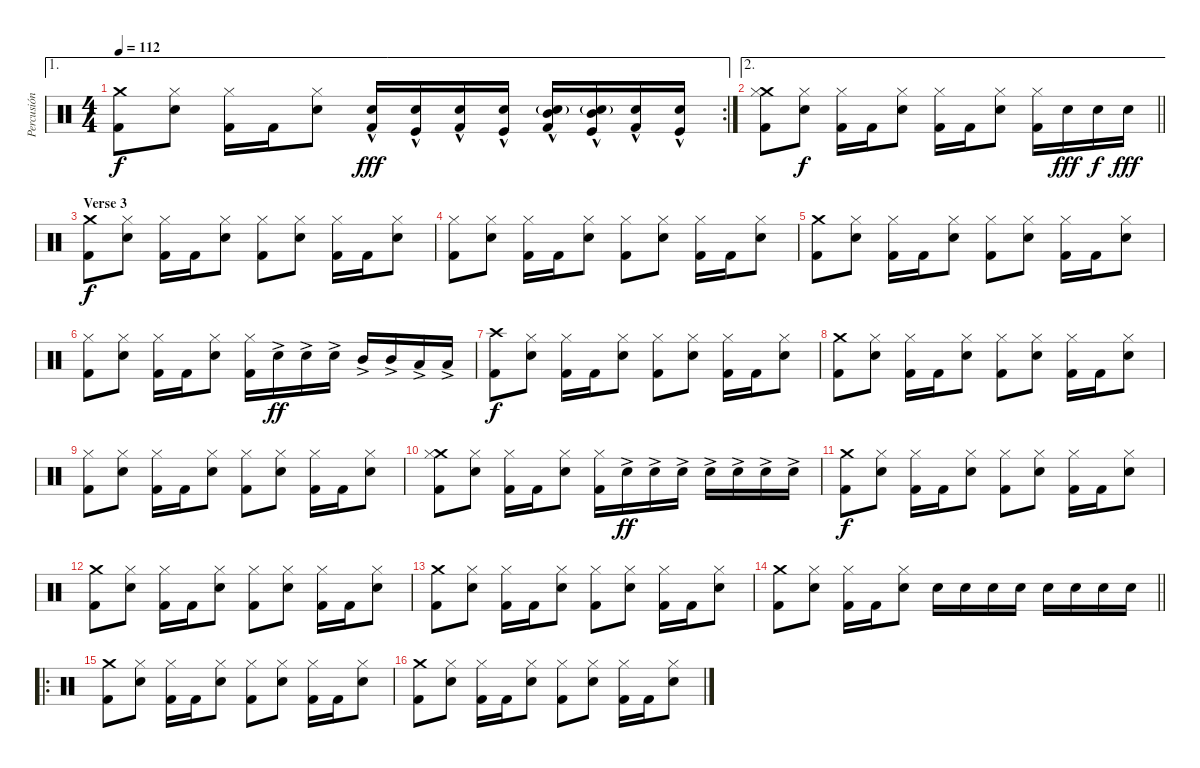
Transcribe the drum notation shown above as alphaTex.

\track ("Percusión" "Percusión") {instrument percussion}
\staff {score}
\articulation defaults
\ae 1
\rc 2
\ts (4 4)
\tempo 112
\clef neutral
\ks c
("Crash medium (hit)" "Kick (hit) 2").8{dy f} ("Hi-Hat (closed)" "Electric Snare (hit)").8 ("Hi-Hat (closed)" "Kick (hit) 2").16 "Kick (hit) 2".16 ("Hi-Hat (closed)" "Electric Snare (hit)").8 ("Electric Snare (hit)" "Kick (hit) 2"{hac}).16{dy fff} ("Electric Snare (hit)" "Kick (hit)"{hac}).16 ("Electric Snare (hit)" "Kick (hit) 2"{hac}).16 ("Electric Snare (hit)" "Kick (hit)"{hac}).16 ("Electric Snare (hit)"{g} "Mid Tom (hit)" "Kick (hit) 2"{hac}).16 ("Electric Snare (hit)"{g} "Mid Tom (hit)" "Kick (hit)"{hac}).16 ("Electric Snare (hit)" "Kick (hit) 2"{hac}).16 ("Electric Snare (hit)" "Kick (hit)"{hac}).16 |
\ae 2
\barLineRight lightlight
("Crash medium (hit)" "Hi-Hat (closed)" "Kick (hit) 2").8 ("Hi-Hat (closed)" "Electric Snare (hit)").8{dy f} ("Hi-Hat (closed)" "Kick (hit) 2").16 "Kick (hit) 2".16 ("Hi-Hat (closed)" "Electric Snare (hit)").8 ("Hi-Hat (closed)" "Kick (hit) 2").16 "Kick (hit) 2".16 ("Hi-Hat (closed)" "Electric Snare (hit)").8 ("Hi-Hat (closed)" "Kick (hit) 2").16 "Electric Snare (hit)".16{dy fff} "Electric Snare (hit)".16{dy f} "Electric Snare (hit)".16{dy fff} |
\section ("" "Verse 3")
("Crash medium (hit)" "Kick (hit) 2").8{dy f} ("Hi-Hat (closed)" "Electric Snare (hit)").8 ("Hi-Hat (closed)" "Kick (hit) 2").16 "Kick (hit) 2".16 ("Hi-Hat (closed)" "Electric Snare (hit)").8 ("Hi-Hat (closed)" "Kick (hit) 2").8 ("Hi-Hat (closed)" "Electric Snare (hit)").8 ("Hi-Hat (closed)" "Kick (hit) 2").16 "Kick (hit) 2".16 ("Hi-Hat (closed)" "Electric Snare (hit)").8 |
("Hi-Hat (closed)" "Kick (hit) 2").8 ("Hi-Hat (closed)" "Electric Snare (hit)").8 ("Hi-Hat (closed)" "Kick (hit) 2").16 "Kick (hit) 2".16 ("Hi-Hat (closed)" "Electric Snare (hit)").8 ("Hi-Hat (closed)" "Kick (hit) 2").8 ("Hi-Hat (closed)" "Electric Snare (hit)").8 ("Hi-Hat (closed)" "Kick (hit) 2").16 "Kick (hit) 2".16 ("Hi-Hat (closed)" "Electric Snare (hit)").8 |
("Crash medium (hit)" "Kick (hit) 2").8 ("Hi-Hat (closed)" "Electric Snare (hit)").8 ("Hi-Hat (closed)" "Kick (hit) 2").16 "Kick (hit) 2".16 ("Hi-Hat (closed)" "Electric Snare (hit)").8 ("Hi-Hat (closed)" "Kick (hit) 2").8 ("Hi-Hat (closed)" "Electric Snare (hit)").8 ("Hi-Hat (closed)" "Kick (hit) 2").16 "Kick (hit) 2".16 ("Hi-Hat (closed)" "Electric Snare (hit)").8 |
("Hi-Hat (closed)" "Kick (hit) 2").8 ("Hi-Hat (closed)" "Electric Snare (hit)").8 ("Hi-Hat (closed)" "Kick (hit) 2").16 "Kick (hit) 2".16 ("Hi-Hat (closed)" "Electric Snare (hit)").8 ("Hi-Hat (closed)" "Kick (hit) 2").16 "Electric Snare (hit)"{ac}.16{dy ff} "Electric Snare (hit)"{ac}.16 "Electric Snare (hit)"{ac}.16 "Mid Tom (hit)"{ac}.16 "Mid Tom (hit)"{ac}.16 "Low Tom (hit)"{ac}.16 "Low Tom (hit)"{ac}.16 |
("Crash high (hit)" "Kick (hit) 2").8{dy f} ("Hi-Hat (closed)" "Electric Snare (hit)").8 ("Hi-Hat (closed)" "Kick (hit) 2").16 "Kick (hit) 2".16 ("Hi-Hat (closed)" "Electric Snare (hit)").8 ("Hi-Hat (closed)" "Kick (hit) 2").8 ("Hi-Hat (closed)" "Electric Snare (hit)").8 ("Hi-Hat (closed)" "Kick (hit) 2").16 "Kick (hit) 2".16 ("Hi-Hat (closed)" "Electric Snare (hit)").8 |
("Crash medium (hit)" "Kick (hit) 2").8 ("Hi-Hat (closed)" "Electric Snare (hit)").8 ("Hi-Hat (closed)" "Kick (hit) 2").16 "Kick (hit) 2".16 ("Hi-Hat (closed)" "Electric Snare (hit)").8 ("Hi-Hat (closed)" "Kick (hit) 2").8 ("Hi-Hat (closed)" "Electric Snare (hit)").8 ("Hi-Hat (closed)" "Kick (hit) 2").16 "Kick (hit) 2".16 ("Hi-Hat (closed)" "Electric Snare (hit)").8 |
("Hi-Hat (closed)" "Kick (hit) 2").8 ("Hi-Hat (closed)" "Electric Snare (hit)").8 ("Hi-Hat (closed)" "Kick (hit) 2").16 "Kick (hit) 2".16 ("Hi-Hat (closed)" "Electric Snare (hit)").8 ("Hi-Hat (closed)" "Kick (hit) 2").8 ("Hi-Hat (closed)" "Electric Snare (hit)").8 ("Hi-Hat (closed)" "Kick (hit) 2").16 "Kick (hit) 2".16 ("Hi-Hat (closed)" "Electric Snare (hit)").8 |
("Crash medium (hit)" "Hi-Hat (closed)" "Kick (hit) 2").8 ("Hi-Hat (closed)" "Electric Snare (hit)").8 ("Hi-Hat (closed)" "Kick (hit) 2").16 "Kick (hit) 2".16 ("Hi-Hat (closed)" "Electric Snare (hit)").8 ("Hi-Hat (closed)" "Kick (hit) 2").16 "Electric Snare (hit)"{ac}.16{dy ff} "Electric Snare (hit)"{ac}.16 "Electric Snare (hit)"{ac}.16 "Electric Snare (hit)"{ac}.16 "Electric Snare (hit)"{ac}.16 "Electric Snare (hit)"{ac}.16 "Electric Snare (hit)"{ac}.16 |
("Crash medium (hit)" "Kick (hit) 2").8{dy f} ("Hi-Hat (closed)" "Electric Snare (hit)").8 ("Hi-Hat (closed)" "Kick (hit) 2").16 "Kick (hit) 2".16 ("Hi-Hat (closed)" "Electric Snare (hit)").8 ("Hi-Hat (closed)" "Kick (hit) 2").8 ("Hi-Hat (closed)" "Electric Snare (hit)").8 ("Hi-Hat (closed)" "Kick (hit) 2").16 "Kick (hit) 2".16 ("Hi-Hat (closed)" "Electric Snare (hit)").8 |
("Crash medium (hit)" "Kick (hit) 2").8 ("Hi-Hat (closed)" "Electric Snare (hit)").8 ("Hi-Hat (closed)" "Kick (hit) 2").16 "Kick (hit) 2".16 ("Hi-Hat (closed)" "Electric Snare (hit)").8 ("Hi-Hat (closed)" "Kick (hit) 2").8 ("Hi-Hat (closed)" "Electric Snare (hit)").8 ("Hi-Hat (closed)" "Kick (hit) 2").16 "Kick (hit) 2".16 ("Hi-Hat (closed)" "Electric Snare (hit)").8 |
("Crash medium (hit)" "Kick (hit) 2").8 ("Hi-Hat (closed)" "Electric Snare (hit)").8 ("Hi-Hat (closed)" "Kick (hit) 2").16 "Kick (hit) 2".16 ("Hi-Hat (closed)" "Electric Snare (hit)").8 ("Hi-Hat (closed)" "Kick (hit) 2").8 ("Hi-Hat (closed)" "Electric Snare (hit)").8 ("Hi-Hat (closed)" "Kick (hit) 2").16 "Kick (hit) 2".16 ("Hi-Hat (closed)" "Electric Snare (hit)").8 |
\barLineRight lightlight
("Crash medium (hit)" "Kick (hit) 2").8 ("Hi-Hat (closed)" "Electric Snare (hit)").8 ("Hi-Hat (closed)" "Kick (hit) 2").16 "Kick (hit) 2".16 ("Hi-Hat (closed)" "Electric Snare (hit)").8 "Electric Snare (hit)".16 "Electric Snare (hit)".16 "Electric Snare (hit)".16 "Electric Snare (hit)".16 "Electric Snare (hit)".16 "Electric Snare (hit)".16 "Electric Snare (hit)".16 "Electric Snare (hit)".16 |
\ro
\section ("" "")
("Crash medium (hit)" "Kick (hit) 2").8 ("Hi-Hat (closed)" "Electric Snare (hit)").8 ("Hi-Hat (closed)" "Kick (hit) 2").16 "Kick (hit) 2".16 ("Hi-Hat (closed)" "Electric Snare (hit)").8 ("Hi-Hat (closed)" "Kick (hit) 2").8 ("Hi-Hat (closed)" "Electric Snare (hit)").8 ("Hi-Hat (closed)" "Kick (hit) 2").16 "Kick (hit) 2".16 ("Hi-Hat (closed)" "Electric Snare (hit)").8 |
("Crash medium (hit)" "Kick (hit) 2").8 ("Hi-Hat (closed)" "Electric Snare (hit)").8 ("Hi-Hat (closed)" "Kick (hit) 2").16 "Kick (hit) 2".16 ("Hi-Hat (closed)" "Electric Snare (hit)").8 ("Hi-Hat (closed)" "Kick (hit) 2").8 ("Hi-Hat (closed)" "Electric Snare (hit)").8 ("Hi-Hat (closed)" "Kick (hit) 2").16 "Kick (hit) 2".16 ("Hi-Hat (closed)" "Electric Snare (hit)").8
